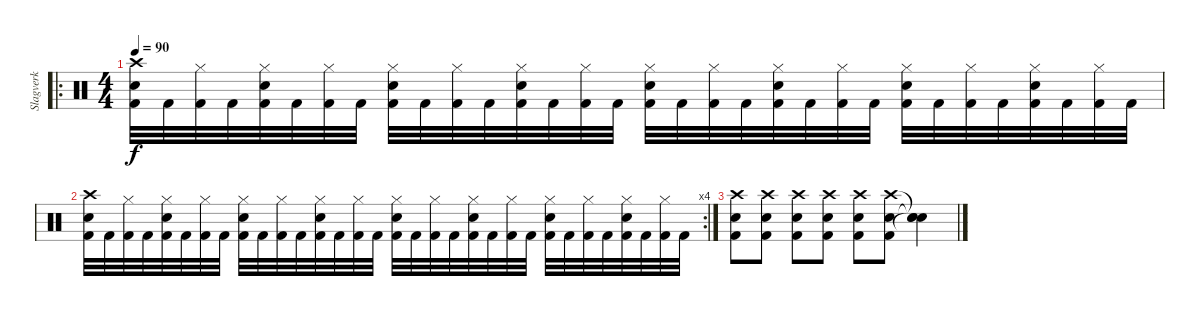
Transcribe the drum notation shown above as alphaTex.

\track ("Slagverk" "Slagverk") {instrument percussion}
\staff {score}
\articulation defaults
\ro
\ts (4 4)
\tempo 90
\clef neutral
\ks c
("Crash high (hit)" "Snare (hit) 2" "Kick (hit) 2").32{dy f} "Kick (hit) 2".32 ("Hi-Hat (closed)" "Kick (hit) 2").32 "Kick (hit) 2".32 ("Hi-Hat (closed)" "Snare (hit) 2" "Kick (hit) 2").32 "Kick (hit) 2".32 ("Hi-Hat (closed)" "Kick (hit) 2").32 "Kick (hit) 2".32 ("Hi-Hat (closed)" "Snare (hit) 2" "Kick (hit) 2").32 "Kick (hit) 2".32 ("Hi-Hat (closed)" "Kick (hit) 2").32 "Kick (hit) 2".32 ("Hi-Hat (closed)" "Snare (hit) 2" "Kick (hit) 2").32 "Kick (hit) 2".32 ("Hi-Hat (closed)" "Kick (hit) 2").32 "Kick (hit) 2".32 ("Hi-Hat (closed)" "Snare (hit) 2" "Kick (hit) 2").32 "Kick (hit) 2".32 ("Hi-Hat (closed)" "Kick (hit) 2").32 "Kick (hit) 2".32 ("Hi-Hat (closed)" "Snare (hit) 2" "Kick (hit) 2").32 "Kick (hit) 2".32 ("Hi-Hat (closed)" "Kick (hit) 2").32 "Kick (hit) 2".32 ("Hi-Hat (closed)" "Snare (hit) 2" "Kick (hit) 2").32 "Kick (hit) 2".32 ("Hi-Hat (closed)" "Kick (hit) 2").32 "Kick (hit) 2".32 ("Hi-Hat (closed)" "Snare (hit) 2" "Kick (hit) 2").32 "Kick (hit) 2".32 ("Hi-Hat (closed)" "Kick (hit) 2").32 "Kick (hit) 2".32 |
\rc 4
("Crash high (hit)" "Snare (hit) 2" "Kick (hit) 2").32 "Kick (hit) 2".32 ("Hi-Hat (closed)" "Kick (hit) 2").32 "Kick (hit) 2".32 ("Hi-Hat (closed)" "Snare (hit) 2" "Kick (hit) 2").32 "Kick (hit) 2".32 ("Hi-Hat (closed)" "Kick (hit) 2").32 "Kick (hit) 2".32 ("Hi-Hat (closed)" "Snare (hit) 2" "Kick (hit) 2").32 "Kick (hit) 2".32 ("Hi-Hat (closed)" "Kick (hit) 2").32 "Kick (hit) 2".32 ("Hi-Hat (closed)" "Snare (hit) 2" "Kick (hit) 2").32 "Kick (hit) 2".32 ("Hi-Hat (closed)" "Kick (hit) 2").32 "Kick (hit) 2".32 ("Hi-Hat (closed)" "Snare (hit) 2" "Kick (hit) 2").32 "Kick (hit) 2".32 ("Hi-Hat (closed)" "Kick (hit) 2").32 "Kick (hit) 2".32 ("Hi-Hat (closed)" "Snare (hit) 2" "Kick (hit) 2").32 "Kick (hit) 2".32 ("Hi-Hat (closed)" "Kick (hit) 2").32 "Kick (hit) 2".32 ("Hi-Hat (closed)" "Snare (hit) 2" "Kick (hit) 2").32 "Kick (hit) 2".32 ("Hi-Hat (closed)" "Kick (hit) 2").32 "Kick (hit) 2".32 ("Hi-Hat (closed)" "Snare (hit) 2" "Kick (hit) 2").32 "Kick (hit) 2".32 ("Hi-Hat (closed)" "Kick (hit) 2").32 "Kick (hit) 2".32 |
("Crash high (hit)" "Snare (hit) 2" "Kick (hit) 2").8 ("Crash high (hit)" "Snare (hit) 2" "Kick (hit) 2").8 ("Crash high (hit)" "Snare (hit) 2" "Kick (hit) 2").8 ("Crash high (hit)" "Snare (hit) 2" "Kick (hit) 2").8 ("Crash high (hit)" "Snare (hit) 2" "Kick (hit) 2").8 ("Crash high (hit)" "Snare (hit) 2" "Kick (hit) 2").8 ("Snare (hit)"{t} "Snare (hit)"{t} "Snare (hit)"{t}).4
